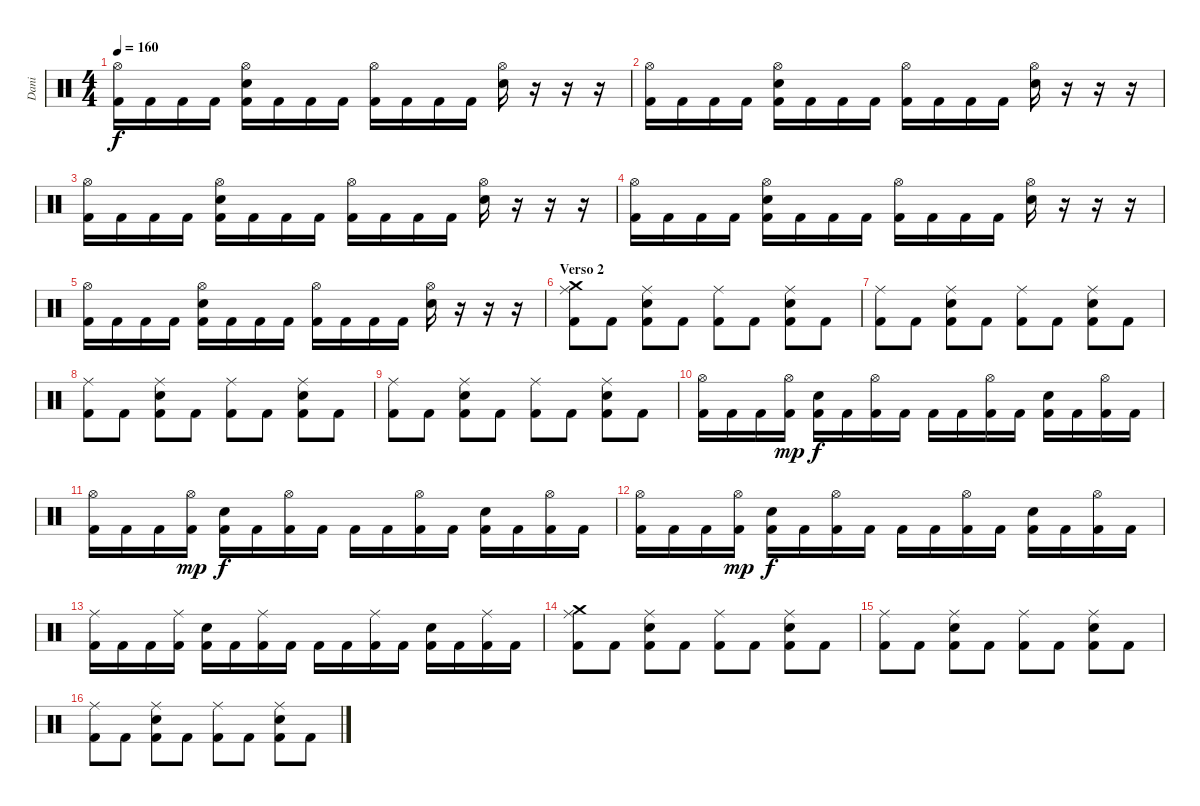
\track ("Dani" "Dani") {instrument percussion}
\staff {score}
\articulation defaults
\ts (4 4)
\tempo 160
\clef neutral
\ks c
("Hi-Hat (open)" "Kick (hit) 2").16{dy f} "Kick (hit) 2".16 "Kick (hit) 2".16 "Kick (hit) 2".16 ("Hi-Hat (open)" "Electric Snare (hit)" "Kick (hit) 2").16 "Kick (hit) 2".16 "Kick (hit) 2".16 "Kick (hit) 2".16 ("Hi-Hat (open)" "Kick (hit) 2").16 "Kick (hit) 2".16 "Kick (hit) 2".16 "Kick (hit) 2".16 ("Hi-Hat (open)" "Electric Snare (hit)").16 r.16 r.16 r.16 |
("Hi-Hat (open)" "Kick (hit) 2").16 "Kick (hit) 2".16 "Kick (hit) 2".16 "Kick (hit) 2".16 ("Hi-Hat (open)" "Electric Snare (hit)" "Kick (hit) 2").16 "Kick (hit) 2".16 "Kick (hit) 2".16 "Kick (hit) 2".16 ("Hi-Hat (open)" "Kick (hit) 2").16 "Kick (hit) 2".16 "Kick (hit) 2".16 "Kick (hit) 2".16 ("Hi-Hat (open)" "Electric Snare (hit)").16 r.16 r.16 r.16 |
("Hi-Hat (open)" "Kick (hit) 2").16 "Kick (hit) 2".16 "Kick (hit) 2".16 "Kick (hit) 2".16 ("Hi-Hat (open)" "Electric Snare (hit)" "Kick (hit) 2").16 "Kick (hit) 2".16 "Kick (hit) 2".16 "Kick (hit) 2".16 ("Hi-Hat (open)" "Kick (hit) 2").16 "Kick (hit) 2".16 "Kick (hit) 2".16 "Kick (hit) 2".16 ("Hi-Hat (open)" "Electric Snare (hit)").16 r.16 r.16 r.16 |
("Hi-Hat (open)" "Kick (hit) 2").16 "Kick (hit) 2".16 "Kick (hit) 2".16 "Kick (hit) 2".16 ("Hi-Hat (open)" "Electric Snare (hit)" "Kick (hit) 2").16 "Kick (hit) 2".16 "Kick (hit) 2".16 "Kick (hit) 2".16 ("Hi-Hat (open)" "Kick (hit) 2").16 "Kick (hit) 2".16 "Kick (hit) 2".16 "Kick (hit) 2".16 ("Hi-Hat (open)" "Electric Snare (hit)").16 r.16 r.16 r.16 |
("Hi-Hat (open)" "Kick (hit) 2").16 "Kick (hit) 2".16 "Kick (hit) 2".16 "Kick (hit) 2".16 ("Hi-Hat (open)" "Electric Snare (hit)" "Kick (hit) 2").16 "Kick (hit) 2".16 "Kick (hit) 2".16 "Kick (hit) 2".16 ("Hi-Hat (open)" "Kick (hit) 2").16 "Kick (hit) 2".16 "Kick (hit) 2".16 "Kick (hit) 2".16 ("Hi-Hat (open)" "Electric Snare (hit)").16 r.16 r.16 r.16 |
\section ("" "Verso 2")
("Crash medium (hit)" "Ride (middle)" "Kick (hit) 2").8 "Kick (hit) 2".8 ("Ride (middle)" "Electric Snare (hit)" "Kick (hit) 2").8 "Kick (hit) 2".8 ("Ride (middle)" "Kick (hit) 2").8 "Kick (hit) 2".8 ("Ride (middle)" "Electric Snare (hit)" "Kick (hit) 2").8 "Kick (hit) 2".8 |
("Ride (middle)" "Kick (hit) 2").8 "Kick (hit) 2".8 ("Ride (middle)" "Electric Snare (hit)" "Kick (hit) 2").8 "Kick (hit) 2".8 ("Ride (middle)" "Kick (hit) 2").8 "Kick (hit) 2".8 ("Ride (middle)" "Electric Snare (hit)" "Kick (hit) 2").8 "Kick (hit) 2".8 |
("Ride (middle)" "Kick (hit) 2").8 "Kick (hit) 2".8 ("Ride (middle)" "Electric Snare (hit)" "Kick (hit) 2").8 "Kick (hit) 2".8 ("Ride (middle)" "Kick (hit) 2").8 "Kick (hit) 2".8 ("Ride (middle)" "Electric Snare (hit)" "Kick (hit) 2").8 "Kick (hit) 2".8 |
("Ride (middle)" "Kick (hit) 2").8 "Kick (hit) 2".8 ("Ride (middle)" "Electric Snare (hit)" "Kick (hit) 2").8 "Kick (hit) 2".8 ("Ride (middle)" "Kick (hit) 2").8 "Kick (hit) 2".8 ("Ride (middle)" "Electric Snare (hit)" "Kick (hit) 2").8 "Kick (hit) 2".8 |
("Hi-Hat (open)" "Kick (hit) 2").16 "Kick (hit) 2".16 "Kick (hit) 2".16 ("Hi-Hat (open)" "Kick (hit) 2").16{dy mp} ("Electric Snare (hit)" "Kick (hit) 2").16{dy f} "Kick (hit) 2".16 ("Hi-Hat (open)" "Kick (hit) 2").16 "Kick (hit) 2".16 "Kick (hit) 2".16 "Kick (hit) 2".16 ("Hi-Hat (open)" "Kick (hit) 2").16 "Kick (hit) 2".16 ("Electric Snare (hit)" "Kick (hit) 2").16 "Kick (hit) 2".16 ("Hi-Hat (open)" "Kick (hit) 2").16 "Kick (hit) 2".16 |
("Hi-Hat (open)" "Kick (hit) 2").16 "Kick (hit) 2".16 "Kick (hit) 2".16 ("Hi-Hat (open)" "Kick (hit) 2").16{dy mp} ("Electric Snare (hit)" "Kick (hit) 2").16{dy f} "Kick (hit) 2".16 ("Hi-Hat (open)" "Kick (hit) 2").16 "Kick (hit) 2".16 "Kick (hit) 2".16 "Kick (hit) 2".16 ("Hi-Hat (open)" "Kick (hit) 2").16 "Kick (hit) 2".16 ("Electric Snare (hit)" "Kick (hit) 2").16 "Kick (hit) 2".16 ("Hi-Hat (open)" "Kick (hit) 2").16 "Kick (hit) 2".16 |
("Hi-Hat (open)" "Kick (hit) 2").16 "Kick (hit) 2".16 "Kick (hit) 2".16 ("Hi-Hat (open)" "Kick (hit) 2").16{dy mp} ("Electric Snare (hit)" "Kick (hit) 2").16{dy f} "Kick (hit) 2".16 ("Hi-Hat (open)" "Kick (hit) 2").16 "Kick (hit) 2".16 "Kick (hit) 2".16 "Kick (hit) 2".16 ("Hi-Hat (open)" "Kick (hit) 2").16 "Kick (hit) 2".16 ("Electric Snare (hit)" "Kick (hit) 2").16 "Kick (hit) 2".16 ("Hi-Hat (open)" "Kick (hit) 2").16 "Kick (hit) 2".16 |
("Ride (middle)" "Kick (hit) 2").16 "Kick (hit) 2".16 "Kick (hit) 2".16 ("Ride (middle)" "Kick (hit) 2").16 ("Electric Snare (hit)" "Kick (hit) 2").16 "Kick (hit) 2".16 ("Ride (middle)" "Kick (hit) 2").16 "Kick (hit) 2".16 "Kick (hit) 2".16 "Kick (hit) 2".16 ("Ride (middle)" "Kick (hit) 2").16 "Kick (hit) 2".16 ("Electric Snare (hit)" "Kick (hit) 2").16 "Kick (hit) 2".16 ("Ride (middle)" "Kick (hit) 2").16 "Kick (hit) 2".16 |
("Crash medium (hit)" "Ride (middle)" "Kick (hit) 2").8 "Kick (hit) 2".8 ("Ride (middle)" "Electric Snare (hit)" "Kick (hit) 2").8 "Kick (hit) 2".8 ("Ride (middle)" "Kick (hit) 2").8 "Kick (hit) 2".8 ("Ride (middle)" "Electric Snare (hit)" "Kick (hit) 2").8 "Kick (hit) 2".8 |
("Ride (middle)" "Kick (hit) 2").8 "Kick (hit) 2".8 ("Ride (middle)" "Electric Snare (hit)" "Kick (hit) 2").8 "Kick (hit) 2".8 ("Ride (middle)" "Kick (hit) 2").8 "Kick (hit) 2".8 ("Ride (middle)" "Electric Snare (hit)" "Kick (hit) 2").8 "Kick (hit) 2".8 |
("Ride (middle)" "Kick (hit) 2").8 "Kick (hit) 2".8 ("Ride (middle)" "Electric Snare (hit)" "Kick (hit) 2").8 "Kick (hit) 2".8 ("Ride (middle)" "Kick (hit) 2").8 "Kick (hit) 2".8 ("Ride (middle)" "Electric Snare (hit)" "Kick (hit) 2").8 "Kick (hit) 2".8
